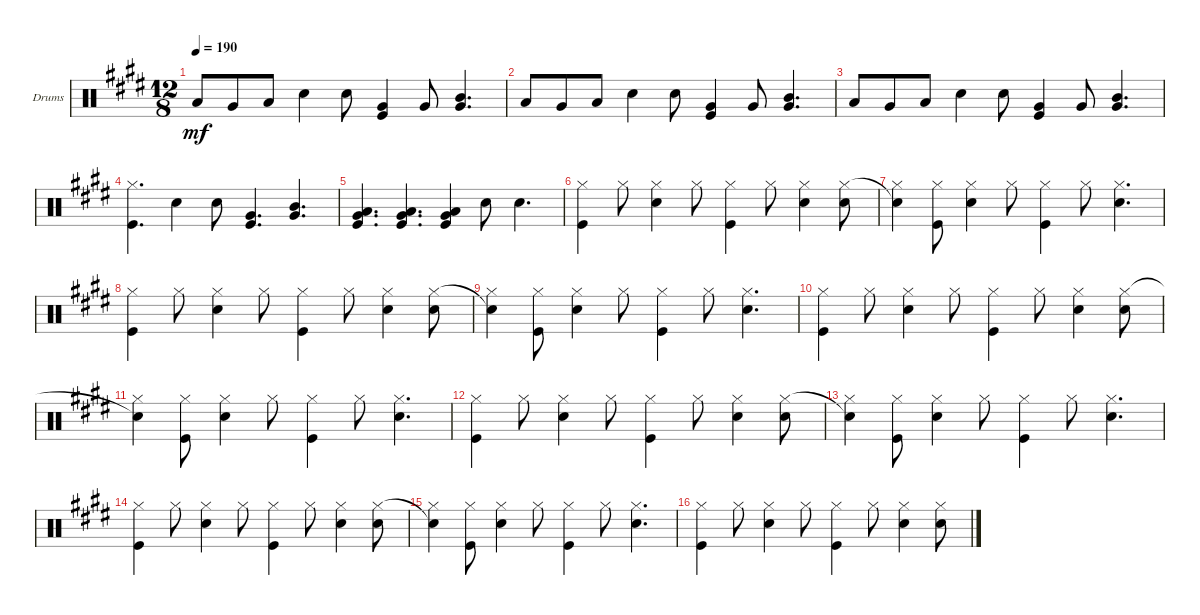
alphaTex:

\defaultSystemsLayout 4
\bracketExtendMode groupsimilarinstruments
\firstSystemTrackNameOrientation horizontal
\otherSystemsTrackNameOrientation horizontal
\track ("Drumkit" "Drums") {instrument percussion}
\staff {score}
\articulation defaults
\ts (12 8)
\tempo 190
\clef neutral
\ks c#minor "Low Tom (hit)".8{dy mf} "Very Low Tom (hit)".8 "Low Tom (hit)".8 "Snare (hit) 2".4 "Snare (hit) 2".8
("Very Low Tom (hit)" "Kick (hit)").4 "Very Low Tom (hit)".8 ("Very Low Tom (hit)" "Mid Tom (hit)").4{d} |
"Low Tom (hit)".8 "Very Low Tom (hit)".8 "Low Tom (hit)".8 "Snare (hit) 2".4 "Snare (hit) 2".8 ("Very Low Tom (hit)" "Kick (hit)").4 "Very Low Tom (hit)".8 ("Very Low Tom (hit)" "Mid Tom (hit)").4{d} |
"Low Tom (hit)".8 "Very Low Tom (hit)".8 "Low Tom (hit)".8 "Snare (hit) 2".4 "Snare (hit) 2".8 ("Very Low Tom (hit)" "Kick (hit)").4 "Very Low Tom (hit)".8 ("Very Low Tom (hit)" "Mid Tom (hit)").4{d} |
("Hi-Hat (closed)" "Kick (hit)").4{d} "Snare (hit) 2".4 "Snare (hit) 2".8 ("Very Low Tom (hit)" "Kick (hit)").4{d} ("Very Low Tom (hit)" "Mid Tom (hit)").4{d} |
("Low Tom (hit)" "Very Low Tom (hit)" "Kick (hit)").4{d} ("Kick (hit)" "Very Low Tom (hit)" "Low Tom (hit)").4{d} ("Low Tom (hit)" "Very Low Tom (hit)" "Kick (hit)").4 "Snare (hit) 2".8 "Snare (hit) 2".4{d} |
("Hi-Hat (closed)" "Kick (hit)").4 "Hi-Hat (closed)".8 ("Hi-Hat (closed)" "Snare (hit) 2").4 "Hi-Hat (closed)".8 ("Hi-Hat (closed)" "Kick (hit)").4 "Hi-Hat (closed)".8 ("Hi-Hat (closed)" "Snare (hit) 2").4 ("Snare (hit) 2" "Hi-Hat (closed)").8 |
("Hi-Hat (closed)" "Snare (hit) 2"{t}).4 ("Hi-Hat (closed)" "Kick (hit)").8 ("Snare (hit) 2" "Hi-Hat (closed)").4 "Hi-Hat (closed)".8 ("Hi-Hat (closed)" "Kick (hit)").4 "Hi-Hat (closed)".8 ("Hi-Hat (closed)" "Snare (hit) 2").4{d} |
("Hi-Hat (closed)" "Kick (hit)").4 "Hi-Hat (closed)".8 ("Hi-Hat (closed)" "Snare (hit) 2").4 "Hi-Hat (closed)".8 ("Hi-Hat (closed)" "Kick (hit)").4 "Hi-Hat (closed)".8 ("Hi-Hat (closed)" "Snare (hit) 2").4 ("Snare (hit) 2" "Hi-Hat (closed)").8 |
("Hi-Hat (closed)" "Snare (hit) 2"{t}).4 ("Hi-Hat (closed)" "Kick (hit)").8 ("Snare (hit) 2" "Hi-Hat (closed)").4 "Hi-Hat (closed)".8 ("Hi-Hat (closed)" "Kick (hit)").4 "Hi-Hat (closed)".8 ("Hi-Hat (closed)" "Snare (hit) 2").4{d} |
("Hi-Hat (closed)" "Kick (hit)").4 "Hi-Hat (closed)".8 ("Hi-Hat (closed)" "Snare (hit) 2").4 "Hi-Hat (closed)".8 ("Hi-Hat (closed)" "Kick (hit)").4 "Hi-Hat (closed)".8 ("Hi-Hat (closed)" "Snare (hit) 2").4 ("Snare (hit) 2" "Hi-Hat (closed)").8 |
("Hi-Hat (closed)" "Snare (hit) 2"{t}).4 ("Hi-Hat (closed)" "Kick (hit)").8 ("Snare (hit) 2" "Hi-Hat (closed)").4 "Hi-Hat (closed)".8 ("Hi-Hat (closed)" "Kick (hit)").4 "Hi-Hat (closed)".8 ("Hi-Hat (closed)" "Snare (hit) 2").4{d} |
("Hi-Hat (closed)" "Kick (hit)").4 "Hi-Hat (closed)".8 ("Hi-Hat (closed)" "Snare (hit) 2").4 "Hi-Hat (closed)".8 ("Hi-Hat (closed)" "Kick (hit)").4 "Hi-Hat (closed)".8 ("Hi-Hat (closed)" "Snare (hit) 2").4 ("Snare (hit) 2" "Hi-Hat (closed)").8 |
("Hi-Hat (closed)" "Snare (hit) 2"{t}).4 ("Hi-Hat (closed)" "Kick (hit)").8 ("Snare (hit) 2" "Hi-Hat (closed)").4 "Hi-Hat (closed)".8 ("Hi-Hat (closed)" "Kick (hit)").4 "Hi-Hat (closed)".8 ("Hi-Hat (closed)" "Snare (hit) 2").4{d} |
("Hi-Hat (closed)" "Kick (hit)").4 "Hi-Hat (closed)".8 ("Hi-Hat (closed)" "Snare (hit) 2").4 "Hi-Hat (closed)".8 ("Hi-Hat (closed)" "Kick (hit)").4 "Hi-Hat (closed)".8 ("Hi-Hat (closed)" "Snare (hit) 2").4 ("Snare (hit) 2" "Hi-Hat (closed)").8 |
("Hi-Hat (closed)" "Snare (hit) 2"{t}).4 ("Hi-Hat (closed)" "Kick (hit)").8 ("Snare (hit) 2" "Hi-Hat (closed)").4 "Hi-Hat (closed)".8 ("Hi-Hat (closed)" "Kick (hit)").4 "Hi-Hat (closed)".8 ("Hi-Hat (closed)" "Snare (hit) 2").4{d} |
("Hi-Hat (closed)" "Kick (hit)").4 "Hi-Hat (closed)".8 ("Hi-Hat (closed)" "Snare (hit) 2").4 "Hi-Hat (closed)".8 ("Hi-Hat (closed)" "Kick (hit)").4 "Hi-Hat (closed)".8 ("Hi-Hat (closed)" "Snare (hit) 2").4 ("Snare (hit) 2" "Hi-Hat (closed)").8
